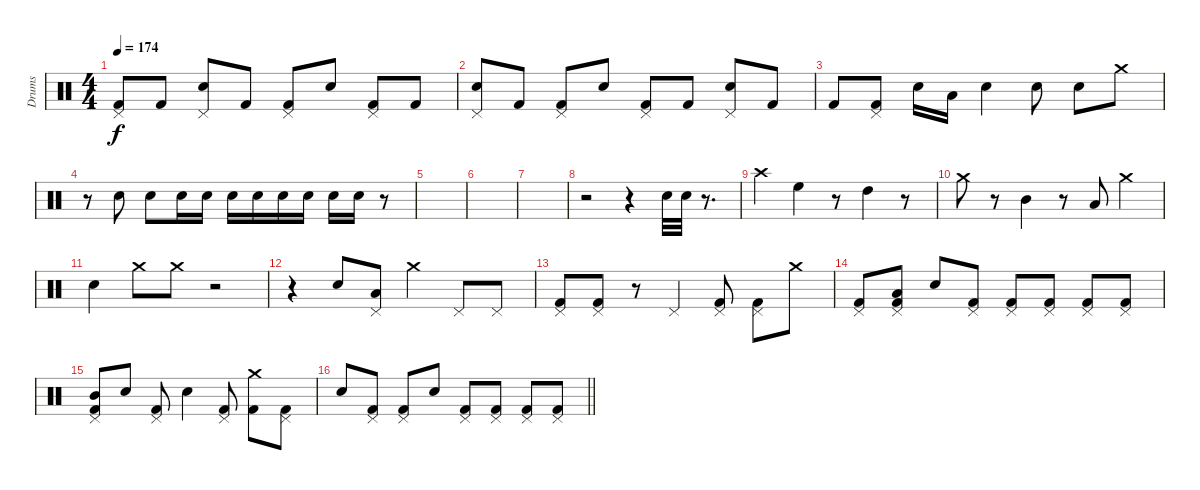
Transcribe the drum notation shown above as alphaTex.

\track ("Drums" "Drums") {instrument percussion}
\staff {score}
\articulation defaults
\ts (4 4)
\tempo 174
\clef neutral
\ks c
("Pedal Hi-Hat (hit)" "Kick (hit) 2").8{dy f} "Kick (hit) 2".8 ("Snare (hit) 2" "Pedal Hi-Hat (hit)").8 "Kick (hit) 2".8 ("Pedal Hi-Hat (hit)" "Kick (hit) 2").8 "Snare (hit) 2".8 ("Pedal Hi-Hat (hit)" "Kick (hit) 2").8 "Kick (hit) 2".8 |
("Snare (hit) 2" "Pedal Hi-Hat (hit)").8 "Kick (hit) 2".8 ("Pedal Hi-Hat (hit)" "Kick (hit) 2").8 "Snare (hit) 2".8 ("Pedal Hi-Hat (hit)" "Kick (hit) 2").8 "Kick (hit) 2".8 ("Snare (hit) 2" "Pedal Hi-Hat (hit)").8 "Kick (hit) 2".8 |
"Kick (hit) 2".8 ("Pedal Hi-Hat (hit)" "Kick (hit) 2").8 "Snare (hit) 2".16 "Low Tom (hit)".16 "Snare (hit) 2".4 "Snare (hit) 2".8 "Snare (hit) 2".8 "Crash medium (hit)".8 |
r.8 "Snare (hit) 2".8 "Snare (hit) 2".8 "Snare (hit) 2".16 "Snare (hit) 2".16 "Snare (hit) 2".16 "Snare (hit) 2".16 "Snare (hit) 2".16 "Snare (hit) 2".16 "Snare (hit) 2".16 "Snare (hit) 2".16 r.8 |
|
|
|
r.2 r.4 "Snare (hit) 2".32 "Snare (hit) 2".32 r.8{d} |
"Crash high (hit)".4 "High Floor Tom (hit)".4 r.8 "High Tom (hit)".4 r.8 |
"Crash medium (hit)".8 r.8 "Mid Tom (hit)".4 r.8 "Low Tom (hit)".8 "Crash medium (hit)".4 |
"Snare (hit) 2".4 "Crash medium (hit)".8 "Crash medium (hit)".8 r.2 |
r.4 "Snare (hit) 2".8 ("Low Tom (hit)" "Pedal Hi-Hat (hit)").8 "Crash medium (hit)".4 "Pedal Hi-Hat (hit)".8 "Pedal Hi-Hat (hit)".8 |
("Pedal Hi-Hat (hit)" "Kick (hit) 2").8 ("Pedal Hi-Hat (hit)" "Kick (hit) 2").8 r.8 "Pedal Hi-Hat (hit)".4 ("Pedal Hi-Hat (hit)" "Kick (hit) 2").8 ("Pedal Hi-Hat (hit)" "Kick (hit) 2").8 "Crash medium (hit)".8 |
("Pedal Hi-Hat (hit)" "Kick (hit) 2").8 ("Pedal Hi-Hat (hit)" "Low Tom (hit)" "Kick (hit) 2").8 "Snare (hit) 2".8 ("Pedal Hi-Hat (hit)" "Kick (hit) 2").8 ("Pedal Hi-Hat (hit)" "Kick (hit) 2").8 ("Pedal Hi-Hat (hit)" "Kick (hit) 2").8 ("Pedal Hi-Hat (hit)" "Kick (hit) 2").8 ("Pedal Hi-Hat (hit)" "Kick (hit) 2").8 |
("Pedal Hi-Hat (hit)" "Mid Tom (hit)" "Kick (hit) 2").8 "Snare (hit) 2".8 ("Pedal Hi-Hat (hit)" "Kick (hit) 2").8 "Snare (hit) 2".4 ("Pedal Hi-Hat (hit)" "Kick (hit) 2").8 ("Crash medium (hit)" "Kick (hit) 2").8 ("Pedal Hi-Hat (hit)" "Kick (hit) 2").8 |
\barLineRight lightlight "Snare (hit) 2".8
("Pedal Hi-Hat (hit)" "Kick (hit) 2").8 ("Pedal Hi-Hat (hit)" "Kick (hit) 2").8 "Snare (hit) 2".8 ("Pedal Hi-Hat (hit)" "Kick (hit) 2").8 ("Pedal Hi-Hat (hit)" "Kick (hit) 2").8 ("Pedal Hi-Hat (hit)" "Kick (hit) 2").8 ("Pedal Hi-Hat (hit)" "Kick (hit) 2").8
